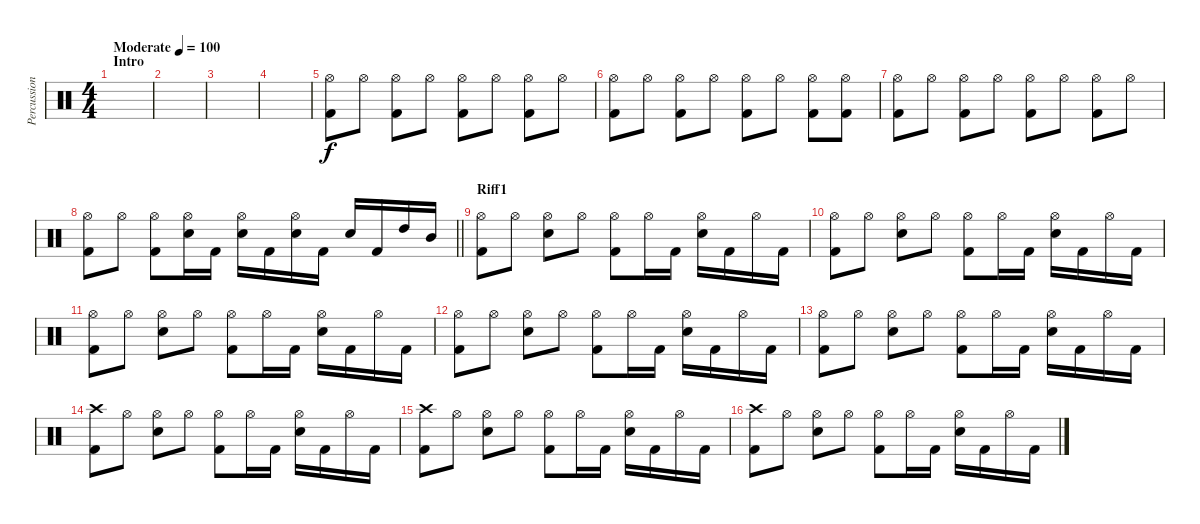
\track ("Percussion" "Percussion") {instrument percussion}
\staff {score}
\articulation defaults
\ts (4 4)
\section ("" "Intro")
\tempo (100 "Moderate")
\clef neutral
\ks c
|
|
|
|
("Hi-Hat (open)" "Kick (hit) 2").8 "Hi-Hat (open)".8 ("Hi-Hat (open)" "Kick (hit) 2").8 "Hi-Hat (open)".8 ("Hi-Hat (open)" "Kick (hit) 2").8 "Hi-Hat (open)".8 ("Hi-Hat (open)" "Kick (hit) 2").8 "Hi-Hat (open)".8 |
("Hi-Hat (open)" "Kick (hit) 2").8 "Hi-Hat (open)".8 ("Hi-Hat (open)" "Kick (hit) 2").8 "Hi-Hat (open)".8 ("Hi-Hat (open)" "Kick (hit) 2").8 "Hi-Hat (open)".8 ("Hi-Hat (open)" "Kick (hit) 2").8 ("Hi-Hat (open)" "Kick (hit) 2").8 |
("Hi-Hat (open)" "Kick (hit) 2").8 "Hi-Hat (open)".8 ("Hi-Hat (open)" "Kick (hit) 2").8 "Hi-Hat (open)".8 ("Hi-Hat (open)" "Kick (hit) 2").8 "Hi-Hat (open)".8 ("Hi-Hat (open)" "Kick (hit) 2").8 "Hi-Hat (open)".8 |
\barLineRight lightlight
("Hi-Hat (open)" "Kick (hit) 2").8 "Hi-Hat (open)".8 ("Hi-Hat (open)" "Kick (hit) 2").8 ("Hi-Hat (open)" "Electric Snare (hit)").16 "Kick (hit) 2".16 ("Hi-Hat (open)" "Electric Snare (hit)").16 "Kick (hit) 2".16 ("Hi-Hat (open)" "Electric Snare (hit)").16 "Kick (hit) 2".16 "Electric Snare (hit)".16 "Kick (hit) 2".16 "High Tom (hit)".16 "Mid Tom (hit)".16 |
\section ("" "Riff1")
("Hi-Hat (open)" "Kick (hit) 2").8 "Hi-Hat (open)".8 ("Hi-Hat (open)" "Electric Snare (hit)").8 "Hi-Hat (open)".8 ("Hi-Hat (open)" "Kick (hit) 2").8 "Hi-Hat (open)".16 "Kick (hit) 2".16 ("Hi-Hat (open)" "Electric Snare (hit)").16 "Kick (hit) 2".16 "Hi-Hat (open)".16 "Kick (hit) 2".16 |
("Hi-Hat (open)" "Kick (hit) 2").8 "Hi-Hat (open)".8 ("Hi-Hat (open)" "Electric Snare (hit)").8 "Hi-Hat (open)".8 ("Hi-Hat (open)" "Kick (hit) 2").8 "Hi-Hat (open)".16 "Kick (hit) 2".16 ("Hi-Hat (open)" "Electric Snare (hit)").16 "Kick (hit) 2".16 "Hi-Hat (open)".16 "Kick (hit) 2".16 |
("Hi-Hat (open)" "Kick (hit) 2").8 "Hi-Hat (open)".8 ("Hi-Hat (open)" "Electric Snare (hit)").8 "Hi-Hat (open)".8 ("Hi-Hat (open)" "Kick (hit) 2").8 "Hi-Hat (open)".16 "Kick (hit) 2".16 ("Hi-Hat (open)" "Electric Snare (hit)").16 "Kick (hit) 2".16 "Hi-Hat (open)".16 "Kick (hit) 2".16 |
("Hi-Hat (open)" "Kick (hit) 2").8 "Hi-Hat (open)".8 ("Hi-Hat (open)" "Electric Snare (hit)").8 "Hi-Hat (open)".8 ("Hi-Hat (open)" "Kick (hit) 2").8 "Hi-Hat (open)".16 "Kick (hit) 2".16 ("Hi-Hat (open)" "Electric Snare (hit)").16 "Kick (hit) 2".16 "Hi-Hat (open)".16 "Kick (hit) 2".16 |
("Hi-Hat (open)" "Kick (hit) 2").8 "Hi-Hat (open)".8 ("Hi-Hat (open)" "Electric Snare (hit)").8 "Hi-Hat (open)".8 ("Hi-Hat (open)" "Kick (hit) 2").8 "Hi-Hat (open)".16 "Kick (hit) 2".16 ("Hi-Hat (open)" "Electric Snare (hit)").16 "Kick (hit) 2".16 "Hi-Hat (open)".16 "Kick (hit) 2".16 |
("Crash high (hit)" "Kick (hit) 2").8 "Hi-Hat (open)".8 ("Hi-Hat (open)" "Electric Snare (hit)").8 "Hi-Hat (open)".8 ("Hi-Hat (open)" "Kick (hit) 2").8 "Hi-Hat (open)".16 "Kick (hit) 2".16 ("Hi-Hat (open)" "Electric Snare (hit)").16 "Kick (hit) 2".16 "Hi-Hat (open)".16 "Kick (hit) 2".16 |
("Crash high (hit)" "Kick (hit) 2").8 "Hi-Hat (open)".8 ("Hi-Hat (open)" "Electric Snare (hit)").8 "Hi-Hat (open)".8 ("Hi-Hat (open)" "Kick (hit) 2").8 "Hi-Hat (open)".16 "Kick (hit) 2".16 ("Hi-Hat (open)" "Electric Snare (hit)").16 "Kick (hit) 2".16 "Hi-Hat (open)".16 "Kick (hit) 2".16 |
("Crash high (hit)" "Kick (hit) 2").8 "Hi-Hat (open)".8 ("Hi-Hat (open)" "Electric Snare (hit)").8 "Hi-Hat (open)".8 ("Hi-Hat (open)" "Kick (hit) 2").8 "Hi-Hat (open)".16 "Kick (hit) 2".16 ("Hi-Hat (open)" "Electric Snare (hit)").16 "Kick (hit) 2".16 "Hi-Hat (open)".16 "Kick (hit) 2".16
